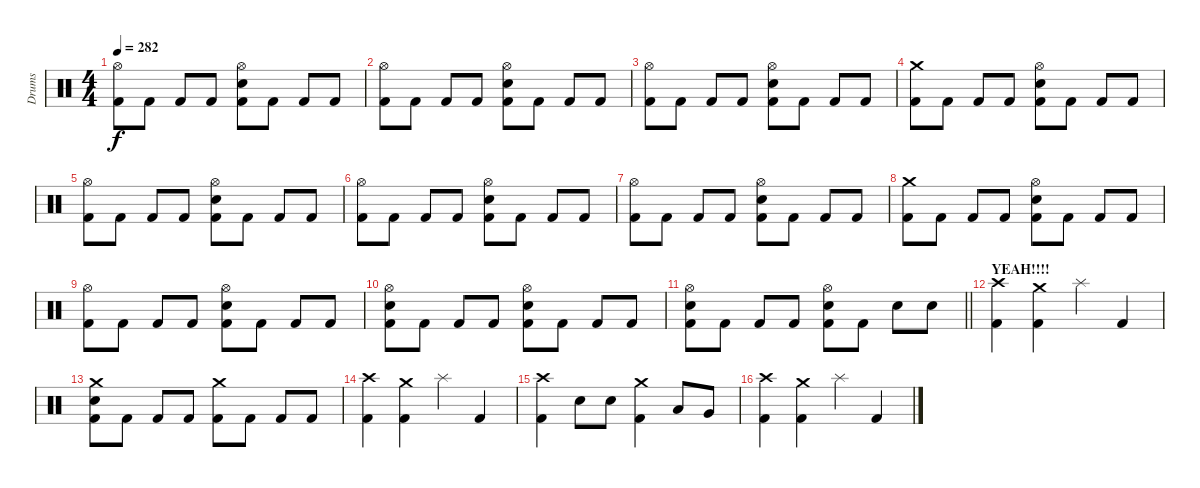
\track ("Drums" "Drums") {instrument percussion}
\staff {score}
\articulation defaults
\ts (4 4)
\tempo 282
\clef neutral
\ks c
("Hi-Hat (open)" "Kick (hit) 2").8{dy f} "Kick (hit) 2".8 "Kick (hit) 2".8 "Kick (hit) 2".8 ("Hi-Hat (open)" "Snare (hit) 2" "Kick (hit) 2").8 "Kick (hit) 2".8 "Kick (hit) 2".8 "Kick (hit) 2".8 |
("Hi-Hat (open)" "Kick (hit) 2").8 "Kick (hit) 2".8 "Kick (hit) 2".8 "Kick (hit) 2".8 ("Hi-Hat (open)" "Snare (hit) 2" "Kick (hit) 2").8 "Kick (hit) 2".8 "Kick (hit) 2".8 "Kick (hit) 2".8 |
("Hi-Hat (open)" "Kick (hit) 2").8 "Kick (hit) 2".8 "Kick (hit) 2".8 "Kick (hit) 2".8 ("Hi-Hat (open)" "Snare (hit) 2" "Kick (hit) 2").8 "Kick (hit) 2".8 "Kick (hit) 2".8 "Kick (hit) 2".8 |
("Crash medium (hit)" "Kick (hit) 2").8 "Kick (hit) 2".8 "Kick (hit) 2".8 "Kick (hit) 2".8 ("Hi-Hat (open)" "Snare (hit) 2" "Kick (hit) 2").8 "Kick (hit) 2".8 "Kick (hit) 2".8 "Kick (hit) 2".8 |
("Hi-Hat (open)" "Kick (hit) 2").8 "Kick (hit) 2".8 "Kick (hit) 2".8 "Kick (hit) 2".8 ("Hi-Hat (open)" "Snare (hit) 2" "Kick (hit) 2").8 "Kick (hit) 2".8 "Kick (hit) 2".8 "Kick (hit) 2".8 |
("Hi-Hat (open)" "Kick (hit) 2").8 "Kick (hit) 2".8 "Kick (hit) 2".8 "Kick (hit) 2".8 ("Hi-Hat (open)" "Snare (hit) 2" "Kick (hit) 2").8 "Kick (hit) 2".8 "Kick (hit) 2".8 "Kick (hit) 2".8 |
("Hi-Hat (open)" "Kick (hit) 2").8 "Kick (hit) 2".8 "Kick (hit) 2".8 "Kick (hit) 2".8 ("Hi-Hat (open)" "Snare (hit) 2" "Kick (hit) 2").8 "Kick (hit) 2".8 "Kick (hit) 2".8 "Kick (hit) 2".8 |
("Crash medium (hit)" "Kick (hit) 2").8 "Kick (hit) 2".8 "Kick (hit) 2".8 "Kick (hit) 2".8 ("Hi-Hat (open)" "Snare (hit) 2" "Kick (hit) 2").8 "Kick (hit) 2".8 "Kick (hit) 2".8 "Kick (hit) 2".8 |
("Hi-Hat (open)" "Kick (hit) 2").8 "Kick (hit) 2".8 "Kick (hit) 2".8 "Kick (hit) 2".8 ("Hi-Hat (open)" "Snare (hit) 2" "Kick (hit) 2").8 "Kick (hit) 2".8 "Kick (hit) 2".8 "Kick (hit) 2".8 |
("Hi-Hat (open)" "Snare (hit) 2" "Kick (hit) 2").8 "Kick (hit) 2".8 "Kick (hit) 2".8 "Kick (hit) 2".8 ("Hi-Hat (open)" "Snare (hit) 2" "Kick (hit) 2").8 "Kick (hit) 2".8 "Kick (hit) 2".8 "Kick (hit) 2".8 |
\barLineRight lightlight
("Hi-Hat (open)" "Snare (hit) 2" "Kick (hit) 2").8 "Kick (hit) 2".8 "Kick (hit) 2".8 "Kick (hit) 2".8 ("Hi-Hat (open)" "Snare (hit) 2" "Kick (hit) 2").8 "Kick (hit) 2".8 "Snare (hit) 2".8 "Snare (hit) 2".8 |
\section ("" "YEAH!!!!")
("Crash high (hit)" "Kick (hit) 2").4 ("Crash medium (hit)" "Kick (hit) 2").4 "Splash (hit)".4 "Kick (hit) 2".4 |
("Crash medium (hit)" "Snare (hit) 2" "Kick (hit) 2").8 "Kick (hit) 2".8 "Kick (hit) 2".8 "Kick (hit) 2".8 ("Crash medium (hit)" "Kick (hit) 2").8 "Kick (hit) 2".8 "Kick (hit) 2".8 "Kick (hit) 2".8 |
("Crash high (hit)" "Kick (hit) 2").4 ("Crash medium (hit)" "Kick (hit) 2").4 "Splash (hit)".4 "Kick (hit) 2".4 |
("Crash high (hit)" "Kick (hit) 2").4 "Snare (hit) 2".8 "Snare (hit) 2".8 ("Crash medium (hit)" "Kick (hit) 2").4 "Low Tom (hit)".8 "Very Low Tom (hit)".8 |
("Crash high (hit)" "Kick (hit) 2").4 ("Crash medium (hit)" "Kick (hit) 2").4 "Splash (hit)".4 "Kick (hit) 2".4
